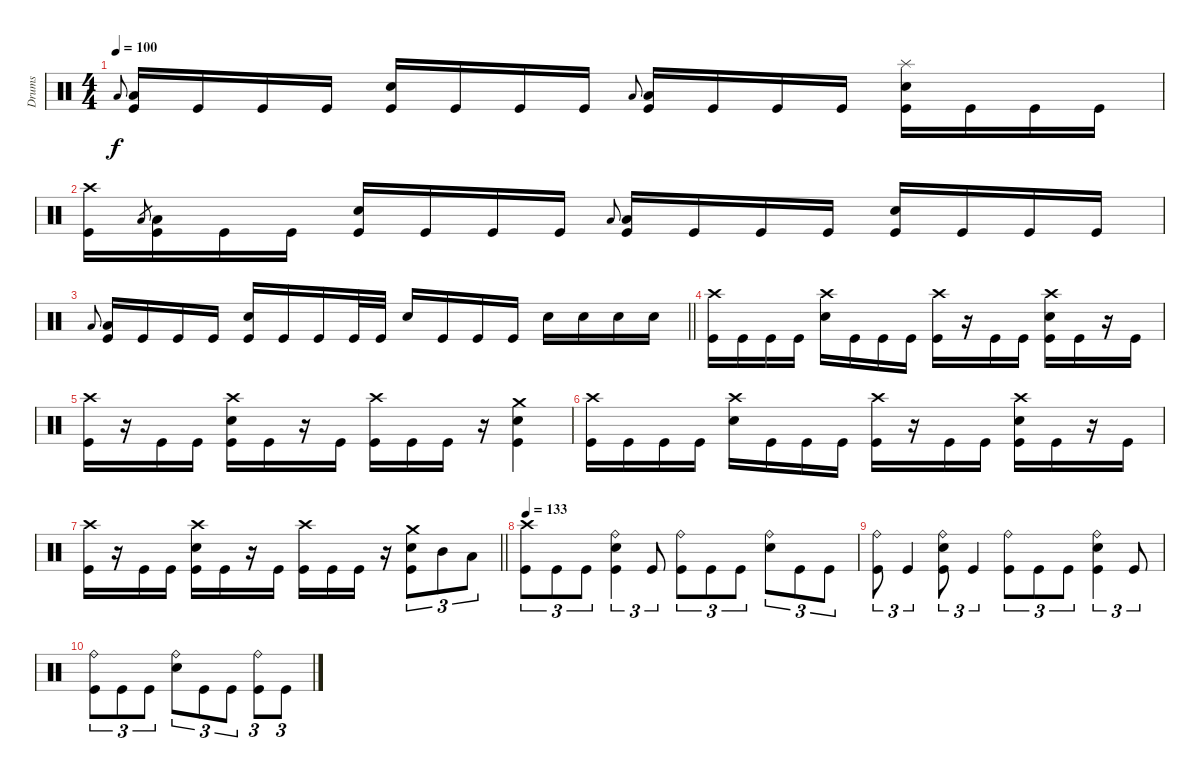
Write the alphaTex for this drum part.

\track ("Drums" "Drums") {instrument percussion}
\staff
\articulation defaults
\ts (4 4)
\tempo 100
\clef neutral
\ks c "Low Floor Tom (hit)".8{gr onbeat dy f}
("Low Floor Tom (hit)" "Kick (hit)").16 "Kick (hit)".16 "Kick (hit)".16 "Kick (hit)".16 ("Electric Snare (hit)" "Kick (hit)").16 "Kick (hit)".16 "Kick (hit)".16 "Kick (hit)".16 "Low Floor Tom (hit)".8{gr onbeat} ("Low Floor Tom (hit)" "Kick (hit)").16 "Kick (hit)".16 "Kick (hit)".16 "Kick (hit)".16 ("Splash (hit)" "Electric Snare (hit)" "Kick (hit)").16 "Kick (hit)".16 "Kick (hit)".16 "Kick (hit)".16 |
("Crash high (hit)" "Kick (hit)").16 "Low Floor Tom (hit)".8{gr} ("Low Floor Tom (hit)" "Kick (hit)").16 "Kick (hit)".16 "Kick (hit)".16 ("Electric Snare (hit)" "Kick (hit)").16 "Kick (hit)".16 "Kick (hit)".16 "Kick (hit)".16 "Low Floor Tom (hit)".8{gr onbeat} ("Low Floor Tom (hit)" "Kick (hit)").16 "Kick (hit)".16 "Kick (hit)".16 "Kick (hit)".16 ("Electric Snare (hit)" "Kick (hit)").16 "Kick (hit)".16 "Kick (hit)".16 "Kick (hit)".16 |
\barLineRight lightlight "Low Floor Tom (hit)".8{gr onbeat}
("Low Floor Tom (hit)" "Kick (hit)").16 "Kick (hit)".16 "Kick (hit)".16 "Kick (hit)".16 ("Electric Snare (hit)" "Kick (hit)").16 "Kick (hit)".16 "Kick (hit)".16 "Kick (hit)".32 "Kick (hit)".32 "Electric Snare (hit)".16 "Kick (hit)".16 "Kick (hit)".16 "Kick (hit)".16 "Electric Snare (hit)".16 "Electric Snare (hit)".16 "Electric Snare (hit)".16 "Electric Snare (hit)".16 |
("Crash high (hit)" "Kick (hit)").16 "Kick (hit)".16 "Kick (hit)".16 "Kick (hit)".16 ("Crash high (hit)" "Electric Snare (hit)").16 "Kick (hit)".16 "Kick (hit)".16 "Kick (hit)".16 ("Crash high (hit)" "Kick (hit)").16 r.16 "Kick (hit)".16 "Kick (hit)".16 ("Crash high (hit)" "Electric Snare (hit)" "Kick (hit)").16 "Kick (hit)".16 r.16 "Kick (hit)".16 |
("Crash high (hit)" "Kick (hit)").16 r.16 "Kick (hit)".16 "Kick (hit)".16 ("Crash high (hit)" "Electric Snare (hit)" "Kick (hit)").16 "Kick (hit)".16 r.16 "Kick (hit)".16 ("Crash high (hit)" "Kick (hit)").16 "Kick (hit)".16 "Kick (hit)".16 r.16 ("Crash medium (hit)" "Electric Snare (hit)" "Kick (hit)").4 |
("Crash high (hit)" "Kick (hit)").16 "Kick (hit)".16 "Kick (hit)".16 "Kick (hit)".16 ("Crash high (hit)" "Electric Snare (hit)").16 "Kick (hit)".16 "Kick (hit)".16 "Kick (hit)".16 ("Crash high (hit)" "Kick (hit)").16 r.16 "Kick (hit)".16 "Kick (hit)".16 ("Crash high (hit)" "Electric Snare (hit)" "Kick (hit)").16 "Kick (hit)".16 r.16 "Kick (hit)".16 |
\barLineRight lightlight
("Crash high (hit)" "Kick (hit)").16 r.16 "Kick (hit)".16 "Kick (hit)".16 ("Crash high (hit)" "Electric Snare (hit)" "Kick (hit)").16 "Kick (hit)".16 r.16 "Kick (hit)".16 ("Crash high (hit)" "Kick (hit)").16 "Kick (hit)".16 "Kick (hit)".16 r.16 ("Crash medium (hit)" "Electric Snare (hit)" "Kick (hit)").8{tu (3 2)} "Mid Tom (hit)".8{tu (3 2)} "Low Tom (hit)".8{tu (3 2)} |
\tempo 133
("Crash high (hit)" "Kick (hit)").8{tu (3 2)} "Kick (hit)".8{tu (3 2)} "Kick (hit)".8{tu (3 2)} ("Ride (bell)" "Electric Snare (hit)" "Kick (hit)").4{tu (3 2)} "Kick (hit)".8{tu (3 2)} ("Ride (bell)" "Kick (hit)").8{tu (3 2)} "Kick (hit)".8{tu (3 2)} "Kick (hit)".8{tu (3 2)} ("Ride (bell)" "Electric Snare (hit)").8{tu (3 2)} "Kick (hit)".8{tu (3 2)} "Kick (hit)".8{tu (3 2)} |
("Ride (bell)" "Kick (hit)").8{tu (3 2)} "Kick (hit)".4{tu (3 2)} ("Ride (bell)" "Electric Snare (hit)" "Kick (hit)").8{tu (3 2)} "Kick (hit)".4{tu (3 2)} ("Ride (bell)" "Kick (hit)").8{tu (3 2)} "Kick (hit)".8{tu (3 2)} "Kick (hit)".8{tu (3 2)} ("Ride (bell)" "Electric Snare (hit)" "Kick (hit)").4{tu (3 2)} "Kick (hit)".8{tu (3 2)} |
("Ride (bell)" "Kick (hit)").8{tu (3 2)} "Kick (hit)".8{tu (3 2)} "Kick (hit)".8{tu (3 2)} ("Ride (bell)" "Electric Snare (hit)").8{tu (3 2)} "Kick (hit)".8{tu (3 2)} "Kick (hit)".8{tu (3 2)} ("Ride (bell)" "Kick (hit)").8{tu (3 2)} "Kick (hit)".8{tu (3 2)}
